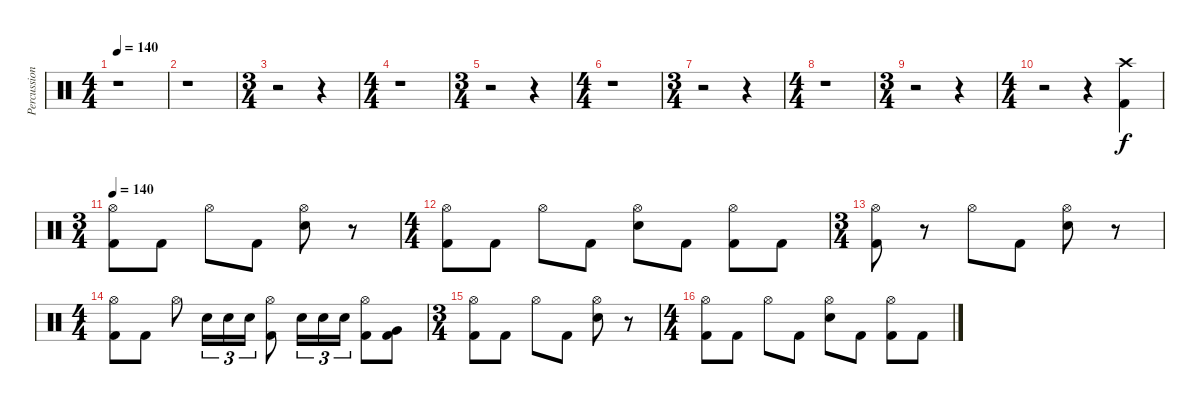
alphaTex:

\track ("Percussion" "Percussion") {instrument percussion}
\staff {score}
\articulation defaults
\ts (4 4)
\tempo 140
\clef neutral
\ks c
r.1{dy f} |
r.1 |
\ts (3 4)
r.2 r.4 |
\ts (4 4)
r.1 |
\ts (3 4)
r.2 r.4 |
\ts (4 4)
r.1 |
\ts (3 4)
r.2 r.4 |
\ts (4 4)
r.1 |
\ts (3 4)
r.2 r.4 |
\ts (4 4)
r.2 r.4 ("Crash high (hit)" "Kick (hit) 2").4 |
\ts (3 4)
\tempo 140
("Hi-Hat (open)" "Kick (hit) 2").8 "Kick (hit) 2".8 "Hi-Hat (open)".8 "Kick (hit) 2".8 ("Hi-Hat (open)" "Electric Snare (hit)").8 r.8 |
\ts (4 4)
("Hi-Hat (open)" "Kick (hit) 2").8 "Kick (hit) 2".8 "Hi-Hat (open)".8 "Kick (hit) 2".8 ("Hi-Hat (open)" "Electric Snare (hit)").8 "Kick (hit) 2".8 ("Hi-Hat (open)" "Kick (hit) 2").8 "Kick (hit) 2".8 |
\ts (3 4)
("Hi-Hat (open)" "Kick (hit) 2").8 r.8 "Hi-Hat (open)".8 "Kick (hit) 2".8 ("Hi-Hat (open)" "Electric Snare (hit)").8 r.8 |
\ts (4 4)
("Hi-Hat (open)" "Kick (hit) 2").8 "Kick (hit) 2".8 "Hi-Hat (open)".8 "Electric Snare (hit)".16{tu (3 2)} "Electric Snare (hit)".16{tu (3 2)} "Electric Snare (hit)".16{tu (3 2)} ("Hi-Hat (open)" "Kick (hit) 2").8 "Electric Snare (hit)".16{tu (3 2)} "Electric Snare (hit)".16{tu (3 2)} "Electric Snare (hit)".16{tu (3 2)} ("Hi-Hat (open)" "Kick (hit) 2").8 ("Very Low Tom (hit)" "Kick (hit) 2").8 |
\ts (3 4)
("Hi-Hat (open)" "Kick (hit) 2").8 "Kick (hit) 2".8 "Hi-Hat (open)".8 "Kick (hit) 2".8 ("Hi-Hat (open)" "Electric Snare (hit)").8 r.8 |
\ts (4 4)
("Hi-Hat (open)" "Kick (hit) 2").8 "Kick (hit) 2".8 "Hi-Hat (open)".8 "Kick (hit) 2".8 ("Hi-Hat (open)" "Electric Snare (hit)").8 "Kick (hit) 2".8 ("Hi-Hat (open)" "Kick (hit) 2").8 "Kick (hit) 2".8
